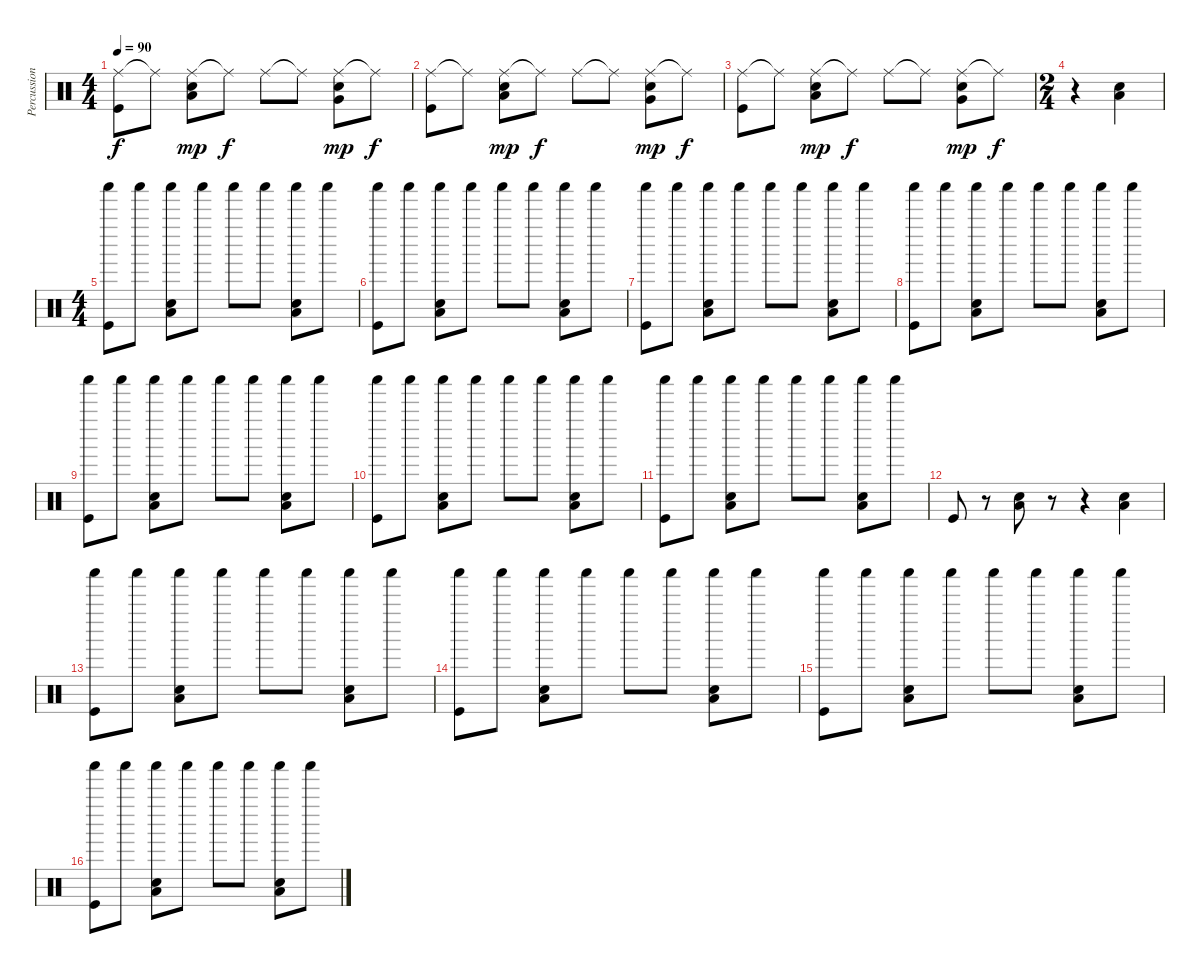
\track ("Percussions" "Percussion") {instrument percussion}
\staff {score}
\articulation defaults
\ts (4 4)
\tempo 90
\clef neutral
\ks c
("Ride (middle)" "Kick (hit)").8{dy f} "Ride (middle)"{t}.8 ("Ride (middle)" "Snare (hit) 2" "Low Tom (hit)").8{dy mp} "Ride (middle)"{t}.8{dy f} "Ride (middle)".8 "Ride (middle)"{t}.8 ("Ride (middle)" "Snare (hit) 2" "Very Low Tom (hit)").8{dy mp} "Ride (middle)"{t}.8{dy f} |
("Ride (middle)" "Kick (hit)").8 "Ride (middle)"{t}.8 ("Ride (middle)" "Snare (hit) 2" "Low Tom (hit)").8{dy mp} "Ride (middle)"{t}.8{dy f} "Ride (middle)".8 "Ride (middle)"{t}.8 ("Ride (middle)" "Snare (hit) 2" "Very Low Tom (hit)").8{dy mp} "Ride (middle)"{t}.8{dy f} |
("Ride (middle)" "Kick (hit)").8 "Ride (middle)"{t}.8 ("Ride (middle)" "Snare (hit) 2" "Low Tom (hit)").8{dy mp} "Ride (middle)"{t}.8{dy f} "Ride (middle)".8 "Ride (middle)"{t}.8 ("Ride (middle)" "Snare (hit) 2" "Very Low Tom (hit)").8{dy mp} "Ride (middle)"{t}.8{dy f} |
\ts (2 4)
r.4 ("Low Tom (hit)" "Snare (hit) 2").4 |
\ts (4 4)
("Shaker (hit)" "Kick (hit)").8 "Shaker (hit)".8 ("Shaker (hit)" "Low Tom (hit)" "Snare (hit) 2").8 "Shaker (hit)".8 "Shaker (hit)".8 "Shaker (hit)".8 ("Shaker (hit)" "Low Tom (hit)" "Snare (hit) 2").8 "Shaker (hit)".8 |
("Shaker (hit)" "Kick (hit)").8 "Shaker (hit)".8 ("Shaker (hit)" "Low Tom (hit)" "Snare (hit) 2").8 "Shaker (hit)".8 "Shaker (hit)".8 "Shaker (hit)".8 ("Shaker (hit)" "Low Tom (hit)" "Snare (hit) 2").8 "Shaker (hit)".8 |
("Shaker (hit)" "Kick (hit)").8 "Shaker (hit)".8 ("Shaker (hit)" "Low Tom (hit)" "Snare (hit) 2").8 "Shaker (hit)".8 "Shaker (hit)".8 "Shaker (hit)".8 ("Shaker (hit)" "Low Tom (hit)" "Snare (hit) 2").8 "Shaker (hit)".8 |
("Shaker (hit)" "Kick (hit)").8 "Shaker (hit)".8 ("Shaker (hit)" "Low Tom (hit)" "Snare (hit) 2").8 "Shaker (hit)".8 "Shaker (hit)".8 "Shaker (hit)".8 ("Shaker (hit)" "Low Tom (hit)" "Snare (hit) 2").8 "Shaker (hit)".8 |
("Shaker (hit)" "Kick (hit)").8 "Shaker (hit)".8 ("Shaker (hit)" "Low Tom (hit)" "Snare (hit) 2").8 "Shaker (hit)".8 "Shaker (hit)".8 "Shaker (hit)".8 ("Shaker (hit)" "Low Tom (hit)" "Snare (hit) 2").8 "Shaker (hit)".8 |
("Shaker (hit)" "Kick (hit)").8 "Shaker (hit)".8 ("Shaker (hit)" "Low Tom (hit)" "Snare (hit) 2").8 "Shaker (hit)".8 "Shaker (hit)".8 "Shaker (hit)".8 ("Shaker (hit)" "Low Tom (hit)" "Snare (hit) 2").8 "Shaker (hit)".8 |
("Shaker (hit)" "Kick (hit)").8 "Shaker (hit)".8 ("Shaker (hit)" "Low Tom (hit)" "Snare (hit) 2").8 "Shaker (hit)".8 "Shaker (hit)".8 "Shaker (hit)".8 ("Shaker (hit)" "Low Tom (hit)" "Snare (hit) 2").8 "Shaker (hit)".8 |
"Kick (hit)".8 r.8 ("Low Tom (hit)" "Snare (hit) 2").8 r.8 r.4 ("Low Tom (hit)" "Snare (hit) 2").4 |
("Shaker (hit)" "Kick (hit)").8 "Shaker (hit)".8 ("Shaker (hit)" "Low Tom (hit)" "Snare (hit) 2").8 "Shaker (hit)".8 "Shaker (hit)".8 "Shaker (hit)".8 ("Shaker (hit)" "Low Tom (hit)" "Snare (hit) 2").8 "Shaker (hit)".8 |
("Shaker (hit)" "Kick (hit)").8 "Shaker (hit)".8 ("Shaker (hit)" "Low Tom (hit)" "Snare (hit) 2").8 "Shaker (hit)".8 "Shaker (hit)".8 "Shaker (hit)".8 ("Shaker (hit)" "Low Tom (hit)" "Snare (hit) 2").8 "Shaker (hit)".8 |
("Shaker (hit)" "Kick (hit)").8 "Shaker (hit)".8 ("Shaker (hit)" "Low Tom (hit)" "Snare (hit) 2").8 "Shaker (hit)".8 "Shaker (hit)".8 "Shaker (hit)".8 ("Shaker (hit)" "Low Tom (hit)" "Snare (hit) 2").8 "Shaker (hit)".8 |
("Shaker (hit)" "Kick (hit)").8 "Shaker (hit)".8 ("Shaker (hit)" "Low Tom (hit)" "Snare (hit) 2").8 "Shaker (hit)".8 "Shaker (hit)".8 "Shaker (hit)".8 ("Shaker (hit)" "Low Tom (hit)" "Snare (hit) 2").8 "Shaker (hit)".8
